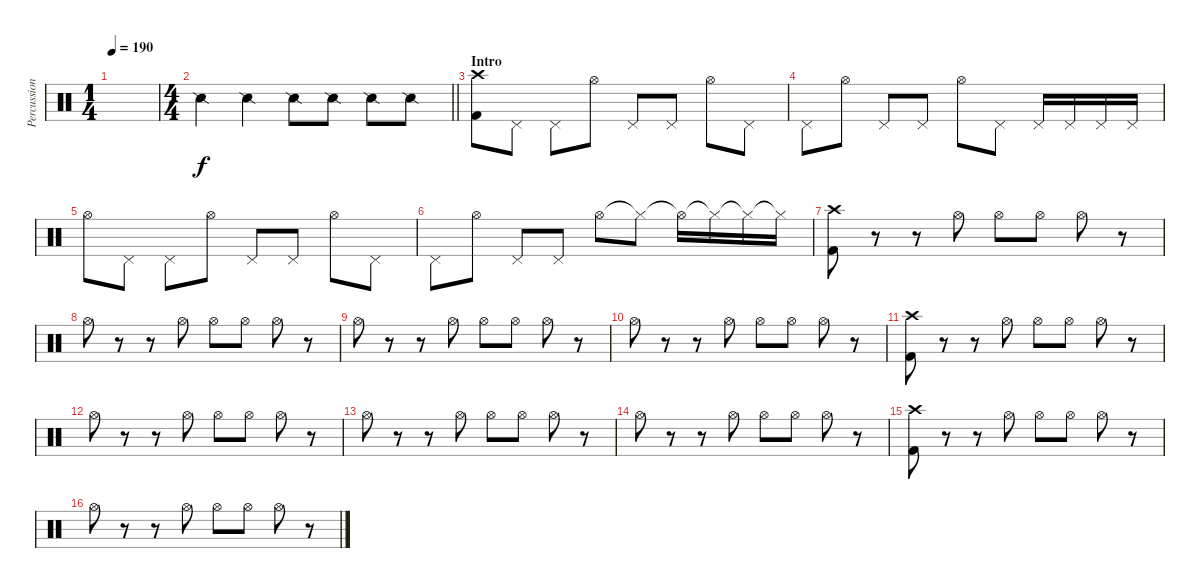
\track ("Percussion" "Percussion") {instrument percussion}
\staff {score}
\articulation defaults
\ts (1 4)
\tempo 190
\clef neutral
\ks c
|
\ts (4 4)
\barLineRight lightlight "Snare (side stick) 2".4 "Snare (side stick) 2".4 "Snare (side stick) 2".8 "Snare (side stick) 2".8 "Snare (side stick) 2".8 "Snare (side stick) 2".8
|
\section ("" "Intro")
("Crash high (hit)" "Kick (hit) 2").8 "Pedal Hi-Hat (hit)".8 "Pedal Hi-Hat (hit)".8 "Hi-Hat (open)".8 "Pedal Hi-Hat (hit)".8 "Pedal Hi-Hat (hit)".8 "Hi-Hat (open)".8 "Pedal Hi-Hat (hit)".8 |
"Pedal Hi-Hat (hit)".8 "Hi-Hat (open)".8 "Pedal Hi-Hat (hit)".8 "Pedal Hi-Hat (hit)".8 "Hi-Hat (open)".8 "Pedal Hi-Hat (hit)".8 "Pedal Hi-Hat (hit)".16 "Pedal Hi-Hat (hit)".16 "Pedal Hi-Hat (hit)".16 "Pedal Hi-Hat (hit)".16 |
"Hi-Hat (open)".8 "Pedal Hi-Hat (hit)".8 "Pedal Hi-Hat (hit)".8 "Hi-Hat (open)".8 "Pedal Hi-Hat (hit)".8 "Pedal Hi-Hat (hit)".8 "Hi-Hat (open)".8 "Pedal Hi-Hat (hit)".8 |
"Pedal Hi-Hat (hit)".8 "Hi-Hat (open)".8 "Pedal Hi-Hat (hit)".8 "Pedal Hi-Hat (hit)".8 "Hi-Hat (open)".8 "Hi-Hat (closed)"{t}.8 "Hi-Hat (open)"{t}.16 "Hi-Hat (closed)"{t}.16 "Hi-Hat (closed)"{t}.16 "Hi-Hat (closed)"{t}.16 |
("Crash high (hit)" "Kick (hit) 2").8 r.8 r.8 "Hi-Hat (open)".8 "Hi-Hat (open)".8 "Hi-Hat (open)".8 "Hi-Hat (open)".8 r.8 |
"Hi-Hat (open)".8 r.8 r.8 "Hi-Hat (open)".8 "Hi-Hat (open)".8 "Hi-Hat (open)".8 "Hi-Hat (open)".8 r.8 |
"Hi-Hat (open)".8 r.8 r.8 "Hi-Hat (open)".8 "Hi-Hat (open)".8 "Hi-Hat (open)".8 "Hi-Hat (open)".8 r.8 |
"Hi-Hat (open)".8 r.8 r.8 "Hi-Hat (open)".8 "Hi-Hat (open)".8 "Hi-Hat (open)".8 "Hi-Hat (open)".8 r.8 |
("Crash high (hit)" "Kick (hit) 2").8 r.8 r.8 "Hi-Hat (open)".8 "Hi-Hat (open)".8 "Hi-Hat (open)".8 "Hi-Hat (open)".8 r.8 |
"Hi-Hat (open)".8 r.8 r.8 "Hi-Hat (open)".8 "Hi-Hat (open)".8 "Hi-Hat (open)".8 "Hi-Hat (open)".8 r.8 |
"Hi-Hat (open)".8 r.8 r.8 "Hi-Hat (open)".8 "Hi-Hat (open)".8 "Hi-Hat (open)".8 "Hi-Hat (open)".8 r.8 |
"Hi-Hat (open)".8 r.8 r.8 "Hi-Hat (open)".8 "Hi-Hat (open)".8 "Hi-Hat (open)".8 "Hi-Hat (open)".8 r.8 |
("Crash high (hit)" "Kick (hit) 2").8 r.8 r.8 "Hi-Hat (open)".8 "Hi-Hat (open)".8 "Hi-Hat (open)".8 "Hi-Hat (open)".8 r.8 |
"Hi-Hat (open)".8 r.8 r.8 "Hi-Hat (open)".8 "Hi-Hat (open)".8 "Hi-Hat (open)".8 "Hi-Hat (open)".8 r.8
